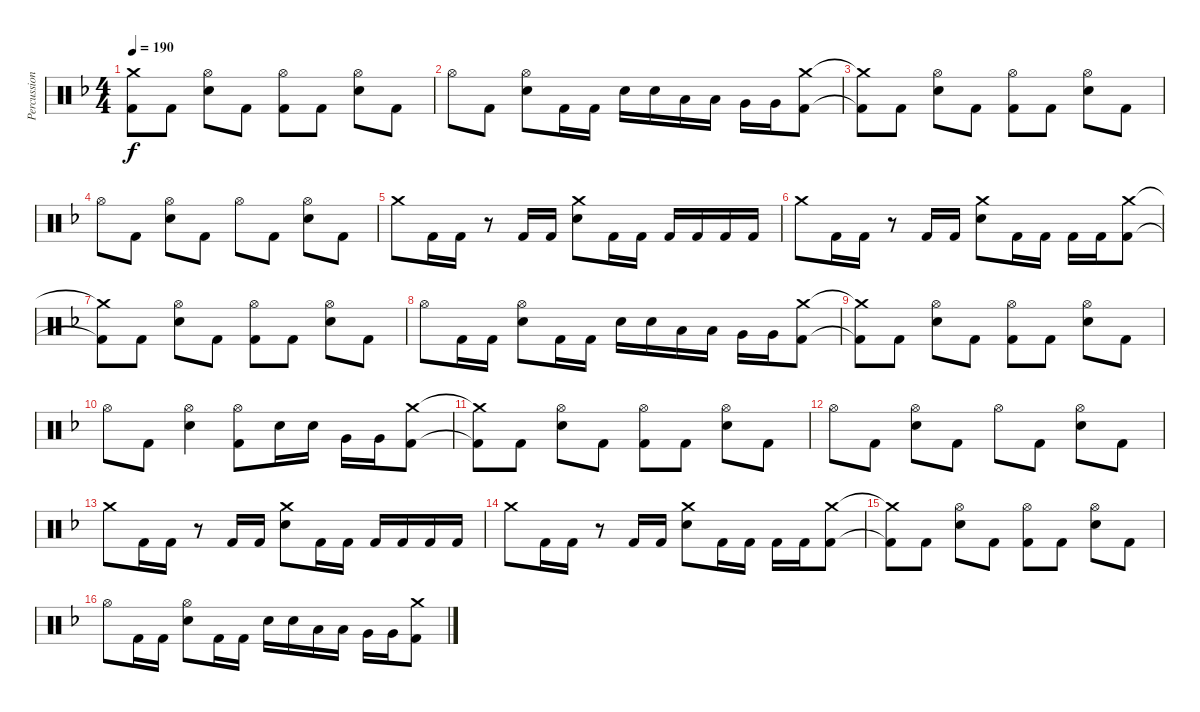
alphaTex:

\track ("Percussion" "Percussion") {instrument percussion}
\staff {score}
\articulation defaults
\ts (4 4)
\tempo 190
\clef neutral
\ks f
("Crash medium (hit)"{t} "Kick (hit) 2"{t}).8{dy f} "Kick (hit) 2".8 ("Hi-Hat (open)" "Electric Snare (hit)").8 "Kick (hit) 2".8 ("Hi-Hat (open)" "Kick (hit) 2").8 "Kick (hit) 2".8 ("Hi-Hat (open)" "Electric Snare (hit)").8 "Kick (hit) 2".8 |
"Hi-Hat (open)".8 "Kick (hit) 2".8 ("Hi-Hat (open)" "Electric Snare (hit)").8 "Kick (hit) 2".16 "Kick (hit) 2".16 "Electric Snare (hit)".16 "Electric Snare (hit)".16 "Low Tom (hit)".16 "Low Tom (hit)".16 "Very Low Tom (hit)".16 "Very Low Tom (hit)".16 ("Crash medium (hit)" "Kick (hit) 2").8 |
("Crash medium (hit)"{t} "Kick (hit) 2"{t}).8 "Kick (hit) 2".8 ("Hi-Hat (open)" "Electric Snare (hit)").8 "Kick (hit) 2".8 ("Hi-Hat (open)" "Kick (hit) 2").8 "Kick (hit) 2".8 ("Hi-Hat (open)" "Electric Snare (hit)").8 "Kick (hit) 2".8 |
"Hi-Hat (open)".8 "Kick (hit) 2".8 ("Hi-Hat (open)" "Electric Snare (hit)").8 "Kick (hit) 2".8 "Hi-Hat (open)".8 "Kick (hit) 2".8 ("Hi-Hat (open)" "Electric Snare (hit)").8 "Kick (hit) 2".8 |
"Crash medium (hit)".8 "Kick (hit) 2".16 "Kick (hit) 2".16 r.8 "Kick (hit) 2".16 "Kick (hit) 2".16 ("Crash medium (hit)" "Electric Snare (hit)").8 "Kick (hit) 2".16 "Kick (hit) 2".16 "Kick (hit) 2".16 "Kick (hit) 2".16 "Kick (hit) 2".16 "Kick (hit) 2".16 |
"Crash medium (hit)".8 "Kick (hit) 2".16 "Kick (hit) 2".16 r.8 "Kick (hit) 2".16 "Kick (hit) 2".16 ("Crash medium (hit)" "Electric Snare (hit)").8 "Kick (hit) 2".16 "Kick (hit) 2".16 "Kick (hit) 2".16 "Kick (hit) 2".16 ("Crash medium (hit)" "Kick (hit) 2").8 |
("Crash medium (hit)"{t} "Kick (hit) 2"{t}).8 "Kick (hit) 2".8 ("Hi-Hat (open)" "Electric Snare (hit)").8 "Kick (hit) 2".8 ("Hi-Hat (open)" "Kick (hit) 2").8 "Kick (hit) 2".8 ("Hi-Hat (open)" "Electric Snare (hit)").8 "Kick (hit) 2".8 |
"Hi-Hat (open)".8 "Kick (hit) 2".16 "Kick (hit) 2".16 ("Hi-Hat (open)" "Electric Snare (hit)").8 "Kick (hit) 2".16 "Kick (hit) 2".16 "Electric Snare (hit)".16 "Electric Snare (hit)".16 "Low Tom (hit)".16 "Low Tom (hit)".16 "Very Low Tom (hit)".16 "Very Low Tom (hit)".16 ("Crash medium (hit)" "Kick (hit) 2").8 |
("Crash medium (hit)"{t} "Kick (hit) 2"{t}).8 "Kick (hit) 2".8 ("Hi-Hat (open)" "Electric Snare (hit)").8 "Kick (hit) 2".8 ("Hi-Hat (open)" "Kick (hit) 2").8 "Kick (hit) 2".8 ("Hi-Hat (open)" "Electric Snare (hit)").8 "Kick (hit) 2".8 |
"Hi-Hat (open)".8 "Kick (hit) 2".8 ("Hi-Hat (open)" "Electric Snare (hit)").4 ("Hi-Hat (open)" "Kick (hit) 2").8 "Electric Snare (hit)".16 "Electric Snare (hit)".16 "Very Low Tom (hit)".16 "Very Low Tom (hit)".16 ("Crash medium (hit)" "Kick (hit) 2").8 |
("Crash medium (hit)"{t} "Kick (hit) 2"{t}).8 "Kick (hit) 2".8 ("Hi-Hat (open)" "Electric Snare (hit)").8 "Kick (hit) 2".8 ("Hi-Hat (open)" "Kick (hit) 2").8 "Kick (hit) 2".8 ("Hi-Hat (open)" "Electric Snare (hit)").8 "Kick (hit) 2".8 |
"Hi-Hat (open)".8 "Kick (hit) 2".8 ("Hi-Hat (open)" "Electric Snare (hit)").8 "Kick (hit) 2".8 "Hi-Hat (open)".8 "Kick (hit) 2".8 ("Hi-Hat (open)" "Electric Snare (hit)").8 "Kick (hit) 2".8 |
"Crash medium (hit)".8 "Kick (hit) 2".16 "Kick (hit) 2".16 r.8 "Kick (hit) 2".16 "Kick (hit) 2".16 ("Crash medium (hit)" "Electric Snare (hit)").8 "Kick (hit) 2".16 "Kick (hit) 2".16 "Kick (hit) 2".16 "Kick (hit) 2".16 "Kick (hit) 2".16 "Kick (hit) 2".16 |
"Crash medium (hit)".8 "Kick (hit) 2".16 "Kick (hit) 2".16 r.8 "Kick (hit) 2".16 "Kick (hit) 2".16 ("Crash medium (hit)" "Electric Snare (hit)").8 "Kick (hit) 2".16 "Kick (hit) 2".16 "Kick (hit) 2".16 "Kick (hit) 2".16 ("Crash medium (hit)" "Kick (hit) 2").8 |
("Crash medium (hit)"{t} "Kick (hit) 2"{t}).8 "Kick (hit) 2".8 ("Hi-Hat (open)" "Electric Snare (hit)").8 "Kick (hit) 2".8 ("Hi-Hat (open)" "Kick (hit) 2").8 "Kick (hit) 2".8 ("Hi-Hat (open)" "Electric Snare (hit)").8 "Kick (hit) 2".8 |
"Hi-Hat (open)".8 "Kick (hit) 2".16 "Kick (hit) 2".16 ("Hi-Hat (open)" "Electric Snare (hit)").8 "Kick (hit) 2".16 "Kick (hit) 2".16 "Electric Snare (hit)".16 "Electric Snare (hit)".16 "Low Tom (hit)".16 "Low Tom (hit)".16 "Very Low Tom (hit)".16 "Very Low Tom (hit)".16 ("Crash medium (hit)" "Kick (hit) 2").8
